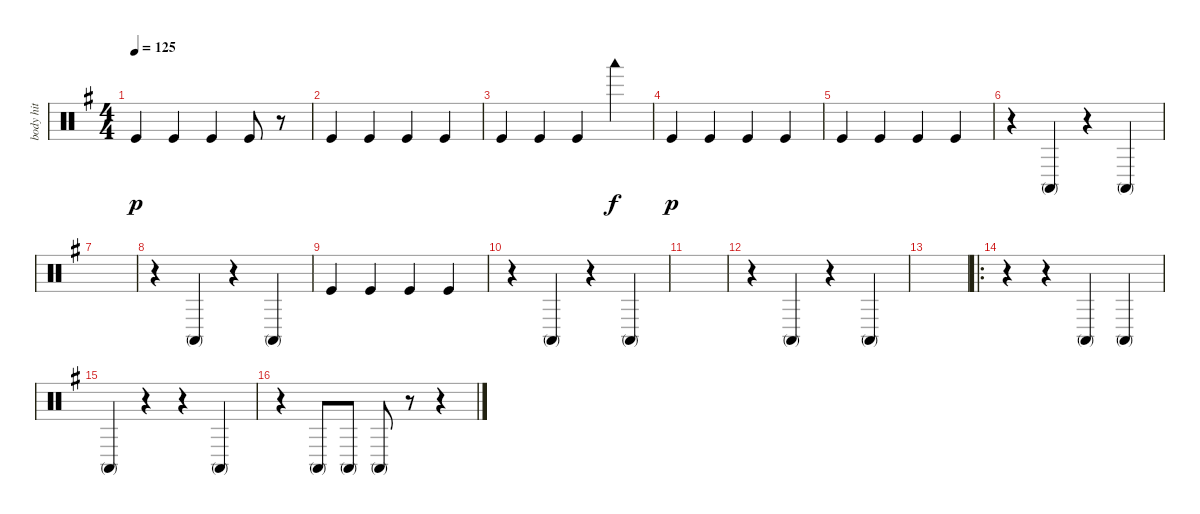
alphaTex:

\track ("body hit" "body hit") {instrument percussion}
\staff {score}
\articulation defaults
\ts (4 4)
\tempo 125
\clef neutral
\ks g "Kick (hit)".4{dy p} "Kick (hit)".4 "Kick (hit)".4 "Kick (hit)".8
r.8 |
"Kick (hit)".4 "Kick (hit)".4 "Kick (hit)".4 "Kick (hit)".4 |
"Kick (hit)".4 "Kick (hit)".4 "Kick (hit)".4 "Woodblock low (hit)".4{dy f} |
"Kick (hit)".4{dy p} "Kick (hit)".4 "Kick (hit)".4 "Kick (hit)".4 |
"Kick (hit)".4 "Kick (hit)".4 "Kick (hit)".4 "Kick (hit)".4 |
r.4 "Conga high (mute)".4 r.4 "Conga high (mute)".4 |
|
r.4 "Conga high (mute)".4 r.4 "Conga high (mute)".4 |
"Kick (hit)".4 "Kick (hit)".4 "Kick (hit)".4 "Kick (hit)".4 |
r.4 "Conga high (mute)".4 r.4 "Conga high (mute)".4 |
|
r.4 "Conga high (mute)".4 r.4 "Conga high (mute)".4 |
|
\ro
r.4 r.4 "Conga high (mute)".4 "Conga high (mute)".4 |
"Conga high (mute)".4 r.4 r.4 "Conga high (mute)".4 |
r.4 "Conga high (mute)".8 "Conga high (mute)".8 "Conga high (mute)".8 r.8 r.4
